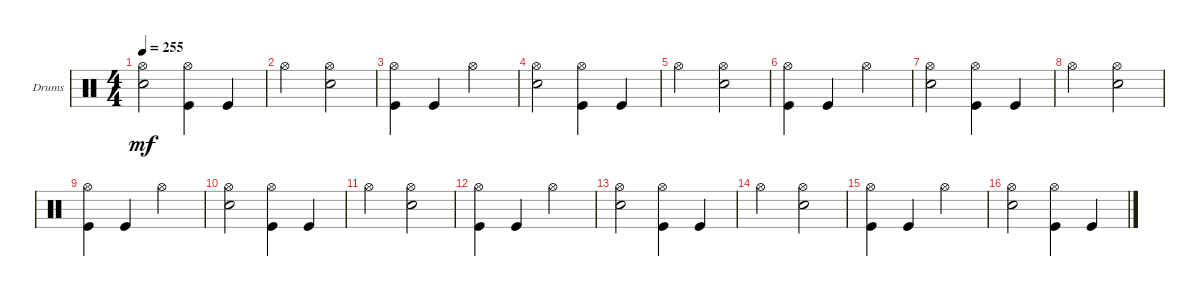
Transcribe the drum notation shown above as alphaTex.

\bracketExtendMode groupsimilarinstruments
\firstSystemTrackNameOrientation horizontal
\otherSystemsTrackNameOrientation horizontal
\track ("Drums" "Drums") {instrument percussion}
\staff {score}
\articulation defaults
\ts (4 4)
\tempo 255
\clef neutral
\ks c
("Snare (hit) 2" "Hi-Hat (open)").2{dy mf} ("Kick (hit)" "Hi-Hat (open)").4 "Kick (hit)".4 |
"Hi-Hat (open)".2 ("Snare (hit) 2" "Hi-Hat (open)").2 |
("Kick (hit)" "Hi-Hat (open)").4 "Kick (hit)".4 "Hi-Hat (open)".2 |
("Snare (hit) 2" "Hi-Hat (open)").2 ("Kick (hit)" "Hi-Hat (open)").4 "Kick (hit)".4 |
"Hi-Hat (open)".2 ("Snare (hit) 2" "Hi-Hat (open)").2 |
("Kick (hit)" "Hi-Hat (open)").4 "Kick (hit)".4 "Hi-Hat (open)".2 |
("Snare (hit) 2" "Hi-Hat (open)").2 ("Kick (hit)" "Hi-Hat (open)").4 "Kick (hit)".4 |
"Hi-Hat (open)".2 ("Snare (hit) 2" "Hi-Hat (open)").2 |
("Kick (hit)" "Hi-Hat (open)").4 "Kick (hit)".4 "Hi-Hat (open)".2 |
("Snare (hit) 2" "Hi-Hat (open)").2 ("Kick (hit)" "Hi-Hat (open)").4 "Kick (hit)".4 |
"Hi-Hat (open)".2 ("Snare (hit) 2" "Hi-Hat (open)").2 |
("Kick (hit)" "Hi-Hat (open)").4 "Kick (hit)".4 "Hi-Hat (open)".2 |
("Snare (hit) 2" "Hi-Hat (open)").2 ("Kick (hit)" "Hi-Hat (open)").4 "Kick (hit)".4 |
"Hi-Hat (open)".2 ("Snare (hit) 2" "Hi-Hat (open)").2 |
("Kick (hit)" "Hi-Hat (open)").4 "Kick (hit)".4 "Hi-Hat (open)".2 |
("Snare (hit) 2" "Hi-Hat (open)").2 ("Kick (hit)" "Hi-Hat (open)").4 "Kick (hit)".4
